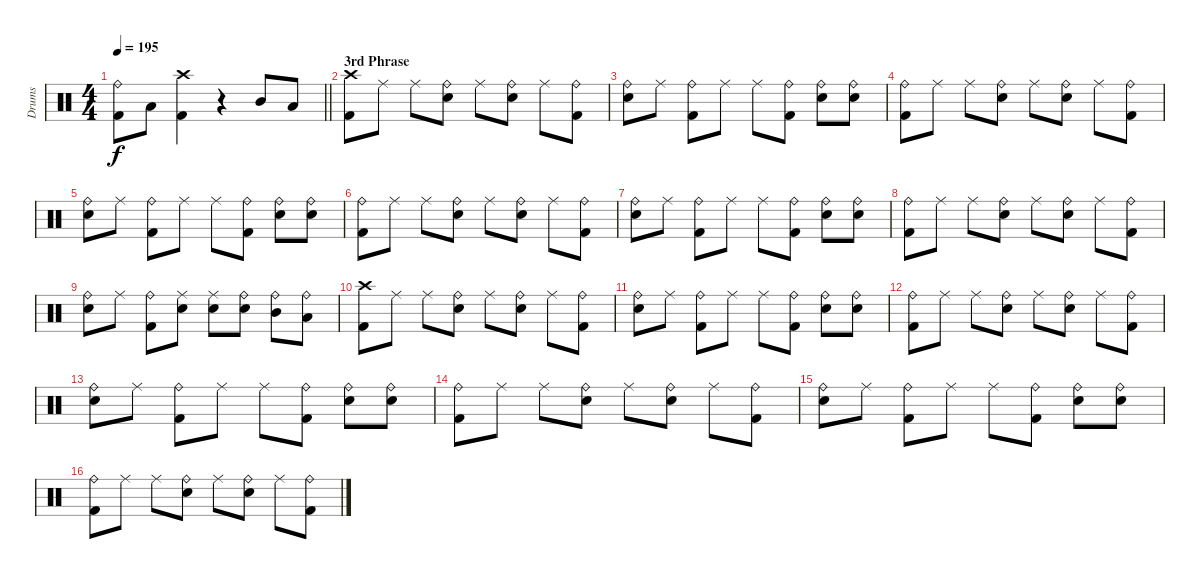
\track ("Drums" "Drums") {instrument percussion}
\staff {score}
\articulation defaults
\ts (4 4)
\tempo 195
\clef neutral
\barLineRight lightlight
\ks c
("Ride (bell)" "Kick (hit) 2").8{dy f} "Low Floor Tom (hit)".8 ("Crash high (hit)" "Kick (hit) 2").4 r.4 "Mid Tom (hit)".8 "Low Floor Tom (hit)".8 |
\section ("" "3rd Phrase")
("Crash high (hit)" "Kick (hit) 2").8 "Ride (middle)".8 "Ride (middle)".8 ("Ride (bell)" "Snare (hit) 2").8 "Ride (middle)".8 ("Ride (bell)" "Snare (hit) 2").8 "Ride (middle)".8 ("Ride (bell)" "Kick (hit) 2").8 |
("Ride (bell)" "Snare (hit) 2").8 "Ride (middle)".8 ("Ride (bell)" "Kick (hit) 2").8 "Ride (middle)".8 "Ride (middle)".8 ("Ride (bell)" "Kick (hit) 2").8 ("Ride (bell)" "Snare (hit) 2").8 ("Ride (bell)" "Snare (hit) 2").8 |
("Ride (bell)" "Kick (hit) 2").8 "Ride (middle)".8 "Ride (middle)".8 ("Ride (bell)" "Snare (hit) 2").8 "Ride (middle)".8 ("Ride (bell)" "Snare (hit) 2").8 "Ride (middle)".8 ("Ride (bell)" "Kick (hit) 2").8 |
("Ride (bell)" "Snare (hit) 2").8 "Ride (middle)".8 ("Ride (bell)" "Kick (hit) 2").8 "Ride (middle)".8 "Ride (middle)".8 ("Ride (bell)" "Kick (hit) 2").8 ("Ride (bell)" "Snare (hit) 2").8 ("Ride (bell)" "Snare (hit) 2").8 |
("Ride (bell)" "Kick (hit) 2").8 "Ride (middle)".8 "Ride (middle)".8 ("Ride (bell)" "Snare (hit) 2").8 "Ride (middle)".8 ("Ride (bell)" "Snare (hit) 2").8 "Ride (middle)".8 ("Ride (bell)" "Kick (hit) 2").8 |
("Ride (bell)" "Snare (hit) 2").8 "Ride (middle)".8 ("Ride (bell)" "Kick (hit) 2").8 "Ride (middle)".8 "Ride (middle)".8 ("Ride (bell)" "Kick (hit) 2").8 ("Ride (bell)" "Snare (hit) 2").8 ("Ride (bell)" "Snare (hit) 2").8 |
("Ride (bell)" "Kick (hit) 2").8 "Ride (middle)".8 "Ride (middle)".8 ("Ride (bell)" "Snare (hit) 2").8 "Ride (middle)".8 ("Ride (bell)" "Snare (hit) 2").8 "Ride (middle)".8 ("Ride (bell)" "Kick (hit) 2").8 |
("Ride (bell)" "Snare (hit) 2").8 "Ride (middle)".8 ("Ride (bell)" "Kick (hit) 2").8 ("Ride (middle)" "Snare (hit) 2").8 ("Ride (middle)" "Snare (hit) 2").8 ("Ride (bell)" "Snare (hit) 2").8 ("Ride (bell)" "Mid Tom (hit)").8 ("Ride (bell)" "Low Floor Tom (hit)").8 |
("Crash high (hit)" "Kick (hit) 2").8 "Ride (middle)".8 "Ride (middle)".8 ("Ride (bell)" "Snare (hit) 2").8 "Ride (middle)".8 ("Ride (bell)" "Snare (hit) 2").8 "Ride (middle)".8 ("Ride (bell)" "Kick (hit) 2").8 |
("Ride (bell)" "Snare (hit) 2").8 "Ride (middle)".8 ("Ride (bell)" "Kick (hit) 2").8 "Ride (middle)".8 "Ride (middle)".8 ("Ride (bell)" "Kick (hit) 2").8 ("Ride (bell)" "Snare (hit) 2").8 ("Ride (bell)" "Snare (hit) 2").8 |
("Ride (bell)" "Kick (hit) 2").8 "Ride (middle)".8 "Ride (middle)".8 ("Ride (bell)" "Snare (hit) 2").8 "Ride (middle)".8 ("Ride (bell)" "Snare (hit) 2").8 "Ride (middle)".8 ("Ride (bell)" "Kick (hit) 2").8 |
("Ride (bell)" "Snare (hit) 2").8 "Ride (middle)".8 ("Ride (bell)" "Kick (hit) 2").8 "Ride (middle)".8 "Ride (middle)".8 ("Ride (bell)" "Kick (hit) 2").8 ("Ride (bell)" "Snare (hit) 2").8 ("Ride (bell)" "Snare (hit) 2").8 |
("Ride (bell)" "Kick (hit) 2").8 "Ride (middle)".8 "Ride (middle)".8 ("Ride (bell)" "Snare (hit) 2").8 "Ride (middle)".8 ("Ride (bell)" "Snare (hit) 2").8 "Ride (middle)".8 ("Ride (bell)" "Kick (hit) 2").8 |
("Ride (bell)" "Snare (hit) 2").8 "Ride (middle)".8 ("Ride (bell)" "Kick (hit) 2").8 "Ride (middle)".8 "Ride (middle)".8 ("Ride (bell)" "Kick (hit) 2").8 ("Ride (bell)" "Snare (hit) 2").8 ("Ride (bell)" "Snare (hit) 2").8 |
("Ride (bell)" "Kick (hit) 2").8 "Ride (middle)".8 "Ride (middle)".8 ("Ride (bell)" "Snare (hit) 2").8 "Ride (middle)".8 ("Ride (bell)" "Snare (hit) 2").8 "Ride (middle)".8 ("Ride (bell)" "Kick (hit) 2").8
